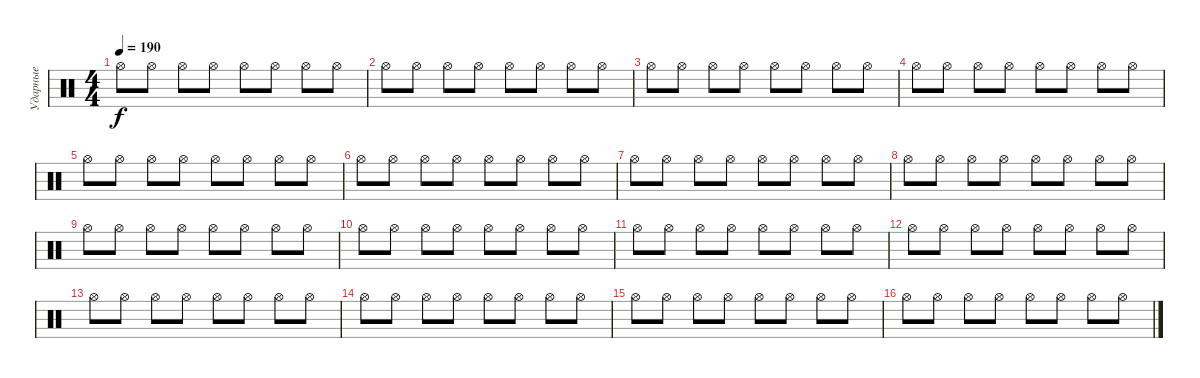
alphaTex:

\track ("Ударные" "Ударные") {instrument percussion}
\staff {score}
\articulation defaults
\ts (4 4)
\tempo 190
\clef neutral
\ks c "Hi-Hat (open)".8{dy f} "Hi-Hat (open)".8 "Hi-Hat (open)".8 "Hi-Hat (open)".8 "Hi-Hat (open)".8 "Hi-Hat (open)".8 "Hi-Hat (open)".8 "Hi-Hat (open)".8
|
"Hi-Hat (open)".8 "Hi-Hat (open)".8 "Hi-Hat (open)".8 "Hi-Hat (open)".8 "Hi-Hat (open)".8 "Hi-Hat (open)".8 "Hi-Hat (open)".8 "Hi-Hat (open)".8 |
"Hi-Hat (open)".8 "Hi-Hat (open)".8 "Hi-Hat (open)".8 "Hi-Hat (open)".8 "Hi-Hat (open)".8 "Hi-Hat (open)".8 "Hi-Hat (open)".8 "Hi-Hat (open)".8 |
"Hi-Hat (open)".8 "Hi-Hat (open)".8 "Hi-Hat (open)".8 "Hi-Hat (open)".8 "Hi-Hat (open)".8 "Hi-Hat (open)".8 "Hi-Hat (open)".8 "Hi-Hat (open)".8 |
"Hi-Hat (open)".8 "Hi-Hat (open)".8 "Hi-Hat (open)".8 "Hi-Hat (open)".8 "Hi-Hat (open)".8 "Hi-Hat (open)".8 "Hi-Hat (open)".8 "Hi-Hat (open)".8 |
"Hi-Hat (open)".8 "Hi-Hat (open)".8 "Hi-Hat (open)".8 "Hi-Hat (open)".8 "Hi-Hat (open)".8 "Hi-Hat (open)".8 "Hi-Hat (open)".8 "Hi-Hat (open)".8 |
"Hi-Hat (open)".8 "Hi-Hat (open)".8 "Hi-Hat (open)".8 "Hi-Hat (open)".8 "Hi-Hat (open)".8 "Hi-Hat (open)".8 "Hi-Hat (open)".8 "Hi-Hat (open)".8 |
"Hi-Hat (open)".8 "Hi-Hat (open)".8 "Hi-Hat (open)".8 "Hi-Hat (open)".8 "Hi-Hat (open)".8 "Hi-Hat (open)".8 "Hi-Hat (open)".8 "Hi-Hat (open)".8 |
"Hi-Hat (open)".8 "Hi-Hat (open)".8 "Hi-Hat (open)".8 "Hi-Hat (open)".8 "Hi-Hat (open)".8 "Hi-Hat (open)".8 "Hi-Hat (open)".8 "Hi-Hat (open)".8 |
"Hi-Hat (open)".8 "Hi-Hat (open)".8 "Hi-Hat (open)".8 "Hi-Hat (open)".8 "Hi-Hat (open)".8 "Hi-Hat (open)".8 "Hi-Hat (open)".8 "Hi-Hat (open)".8 |
"Hi-Hat (open)".8 "Hi-Hat (open)".8 "Hi-Hat (open)".8 "Hi-Hat (open)".8 "Hi-Hat (open)".8 "Hi-Hat (open)".8 "Hi-Hat (open)".8 "Hi-Hat (open)".8 |
"Hi-Hat (open)".8 "Hi-Hat (open)".8 "Hi-Hat (open)".8 "Hi-Hat (open)".8 "Hi-Hat (open)".8 "Hi-Hat (open)".8 "Hi-Hat (open)".8 "Hi-Hat (open)".8 |
"Hi-Hat (open)".8 "Hi-Hat (open)".8 "Hi-Hat (open)".8 "Hi-Hat (open)".8 "Hi-Hat (open)".8 "Hi-Hat (open)".8 "Hi-Hat (open)".8 "Hi-Hat (open)".8 |
"Hi-Hat (open)".8 "Hi-Hat (open)".8 "Hi-Hat (open)".8 "Hi-Hat (open)".8 "Hi-Hat (open)".8 "Hi-Hat (open)".8 "Hi-Hat (open)".8 "Hi-Hat (open)".8 |
"Hi-Hat (open)".8 "Hi-Hat (open)".8 "Hi-Hat (open)".8 "Hi-Hat (open)".8 "Hi-Hat (open)".8 "Hi-Hat (open)".8 "Hi-Hat (open)".8 "Hi-Hat (open)".8 |
"Hi-Hat (open)".8 "Hi-Hat (open)".8 "Hi-Hat (open)".8 "Hi-Hat (open)".8 "Hi-Hat (open)".8 "Hi-Hat (open)".8 "Hi-Hat (open)".8 "Hi-Hat (open)".8
